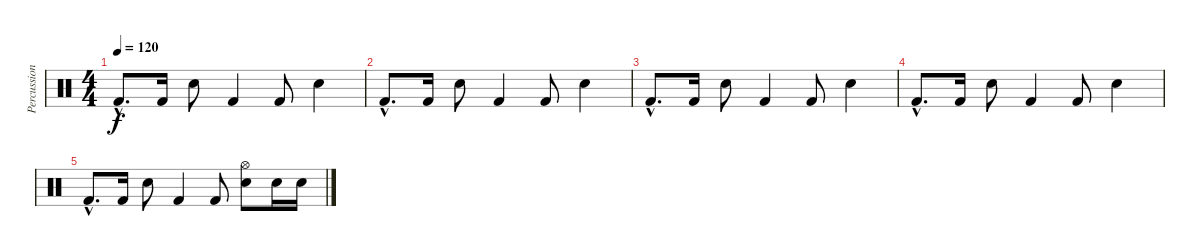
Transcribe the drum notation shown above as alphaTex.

\track ("Percussion" "Percussion") {instrument percussion}
\staff {score}
\articulation defaults
\ts (4 4)
\tempo 120
\clef neutral
\ks c "Kick (hit) 2"{hac}.8{d dy f} "Kick (hit) 2".16 "Snare (hit) 2".8 "Kick (hit) 2".4 "Kick (hit) 2".8 "Snare (hit) 2".4
|
"Kick (hit) 2"{hac}.8{d} "Kick (hit) 2".16 "Snare (hit) 2".8 "Kick (hit) 2".4 "Kick (hit) 2".8 "Snare (hit) 2".4 |
"Kick (hit) 2"{hac}.8{d} "Kick (hit) 2".16 "Snare (hit) 2".8 "Kick (hit) 2".4 "Kick (hit) 2".8 "Snare (hit) 2".4 |
"Kick (hit) 2"{hac}.8{d volume 0} "Kick (hit) 2".16 "Snare (hit) 2".8 "Kick (hit) 2".4 "Kick (hit) 2".8 "Snare (hit) 2".4 |
"Kick (hit) 2"{hac}.8{d} "Kick (hit) 2".16 "Snare (hit) 2".8 "Kick (hit) 2".4 "Kick (hit) 2".8 ("Snare (hit) 2" "Hi-Hat (open)").8 "Snare (hit) 2".16 "Snare (hit) 2".16
